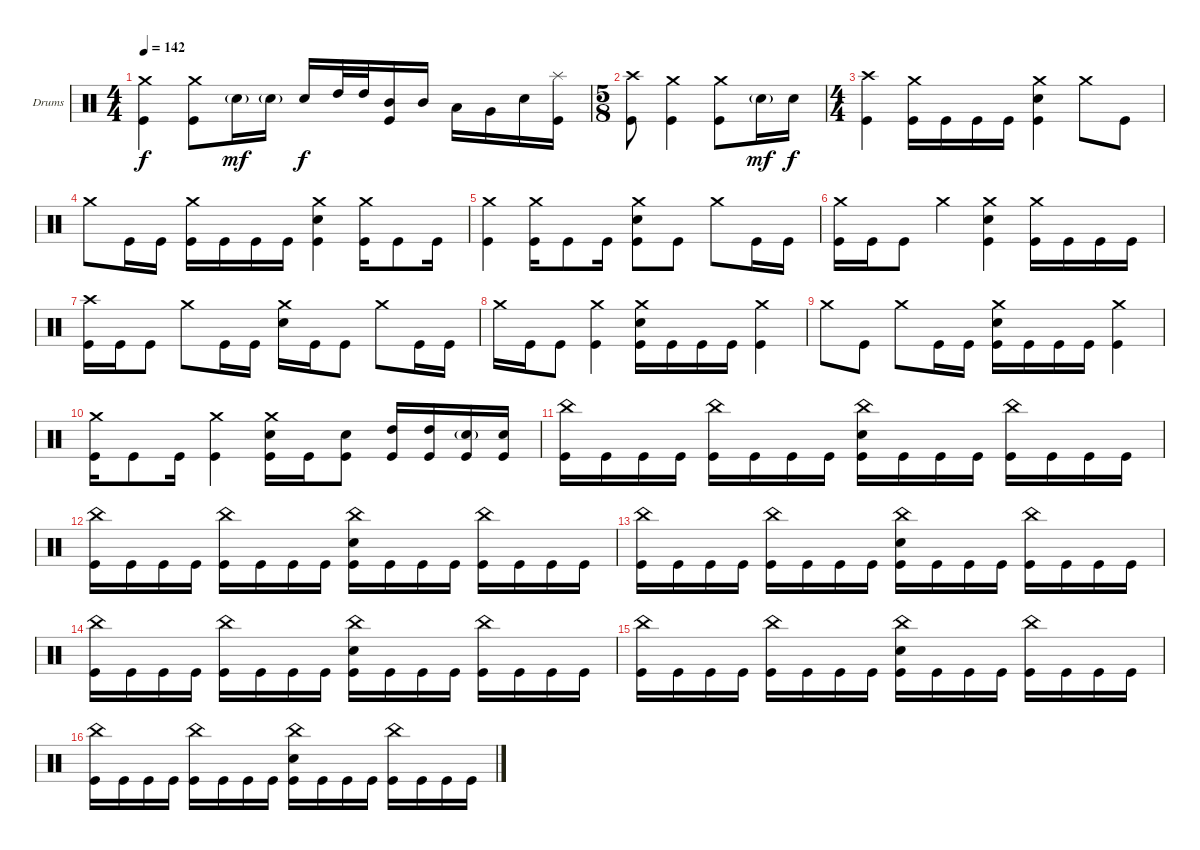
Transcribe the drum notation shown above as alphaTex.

\bracketExtendMode groupsimilarinstruments
\firstSystemTrackNameOrientation horizontal
\otherSystemsTrackNameOrientation horizontal
\track ("Drumkit" "Drums") {instrument percussion}
\staff {score}
\articulation defaults
\ts (4 4)
\tempo 142
\clef neutral
\ks c
("Crash medium (hit)" "Kick (hit)").4{dy f} ("Crash medium (hit)" "Kick (hit)").8 "Snare (hit) 2"{g}.16{dy mf} "Snare (hit) 2"{g}.16 "Snare (hit) 2".16{dy f} "High Tom (hit)".32 "High Tom (hit)".32 ("Mid Tom (hit)" "Kick (hit)").16 "Mid Tom (hit)".16 "Low Tom (hit)".16 "Very Low Tom (hit)".16 "Snare (hit) 2".16 ("Splash (hit)" "Kick (hit)").16 |
\ts (5 8)
\beaming (8 3 2)
("Crash high (hit)" "Kick (hit)").8 ("Crash medium (hit)" "Kick (hit)").4 ("Crash medium (hit)" "Kick (hit)").8 "Snare (hit) 2"{g}.16{dy mf} "Snare (hit) 2".16{dy f} |
\ts (4 4)
\beaming (8 2 2 2 2)
("Crash high (hit)" "Kick (hit)").4 ("Crash medium (hit)" "Kick (hit)").16 "Kick (hit)".16 "Kick (hit)".16 "Kick (hit)".16 ("Crash medium (hit)" "Snare (hit) 2" "Kick (hit)").4 "Crash medium (hit)".8 "Kick (hit)".8 |
"Crash medium (hit)".8 "Kick (hit)".16 "Kick (hit)".16 ("Crash medium (hit)" "Kick (hit)").16 "Kick (hit)".16 "Kick (hit)".16 "Kick (hit)".16 ("Crash medium (hit)" "Snare (hit) 2" "Kick (hit)").4 ("Crash medium (hit)" "Kick (hit)").16 "Kick (hit)".8 "Kick (hit)".16 |
("Crash medium (hit)" "Kick (hit)").4 ("Crash medium (hit)" "Kick (hit)").16 "Kick (hit)".8 "Kick (hit)".16 ("Crash medium (hit)" "Snare (hit) 2" "Kick (hit)").8 "Kick (hit)".8 "Crash medium (hit)".8 "Kick (hit)".16 "Kick (hit)".16 |
("Crash medium (hit)" "Kick (hit)").16 "Kick (hit)".16 "Kick (hit)".8 "Crash medium (hit)".4 ("Crash medium (hit)" "Snare (hit) 2" "Kick (hit)").4 ("Crash medium (hit)" "Kick (hit)").16 "Kick (hit)".16 "Kick (hit)".16 "Kick (hit)".16 |
("Crash high (hit)" "Kick (hit)").16 "Kick (hit)".16 "Kick (hit)".8 "Crash medium (hit)".8 "Kick (hit)".16 "Kick (hit)".16 ("Crash medium (hit)" "Snare (hit) 2").16 "Kick (hit)".16 "Kick (hit)".8 "Crash medium (hit)".8 "Kick (hit)".16 "Kick (hit)".16 |
"Crash medium (hit)".16 "Kick (hit)".16 "Kick (hit)".8 ("Crash medium (hit)" "Kick (hit)").4 ("Crash medium (hit)" "Snare (hit) 2" "Kick (hit)").16 "Kick (hit)".16 "Kick (hit)".16 "Kick (hit)".16 ("Crash medium (hit)" "Kick (hit)").4 |
"Crash medium (hit)".8 "Kick (hit)".8 "Crash medium (hit)".8 "Kick (hit)".16 "Kick (hit)".16 ("Crash medium (hit)" "Snare (hit) 2" "Kick (hit)").16 "Kick (hit)".16 "Kick (hit)".16 "Kick (hit)".16 ("Crash medium (hit)" "Kick (hit)").4 |
("Crash medium (hit)" "Kick (hit)").16 "Kick (hit)".8 "Kick (hit)".16 ("Crash medium (hit)" "Kick (hit)").4 ("Crash medium (hit)" "Snare (hit) 2" "Kick (hit)").16 "Kick (hit)".16 ("Snare (hit) 2" "Kick (hit)").8 ("High Tom (hit)" "Kick (hit)").16 ("High Tom (hit)" "Kick (hit)").16 ("Snare (hit) 2"{g} "Kick (hit)").16 ("Snare (hit) 2" "Kick (hit)").16 |
("China (hit)" "Kick (hit)").16 "Kick (hit)".16 "Kick (hit)".16 "Kick (hit)".16 ("China (hit)" "Kick (hit)").16 "Kick (hit)".16 "Kick (hit)".16 "Kick (hit)".16 ("China (hit)" "Snare (hit) 2" "Kick (hit)").16 "Kick (hit)".16 "Kick (hit)".16 "Kick (hit)".16 ("China (hit)" "Kick (hit)").16 "Kick (hit)".16 "Kick (hit)".16 "Kick (hit)".16 |
("China (hit)" "Kick (hit)").16 "Kick (hit)".16 "Kick (hit)".16 "Kick (hit)".16 ("China (hit)" "Kick (hit)").16 "Kick (hit)".16 "Kick (hit)".16 "Kick (hit)".16 ("China (hit)" "Snare (hit) 2" "Kick (hit)").16 "Kick (hit)".16 "Kick (hit)".16 "Kick (hit)".16 ("China (hit)" "Kick (hit)").16 "Kick (hit)".16 "Kick (hit)".16 "Kick (hit)".16 |
("China (hit)" "Kick (hit)").16 "Kick (hit)".16 "Kick (hit)".16 "Kick (hit)".16 ("China (hit)" "Kick (hit)").16 "Kick (hit)".16 "Kick (hit)".16 "Kick (hit)".16 ("China (hit)" "Snare (hit) 2" "Kick (hit)").16 "Kick (hit)".16 "Kick (hit)".16 "Kick (hit)".16 ("China (hit)" "Kick (hit)").16 "Kick (hit)".16 "Kick (hit)".16 "Kick (hit)".16 |
("China (hit)" "Kick (hit)").16 "Kick (hit)".16 "Kick (hit)".16 "Kick (hit)".16 ("China (hit)" "Kick (hit)").16 "Kick (hit)".16 "Kick (hit)".16 "Kick (hit)".16 ("China (hit)" "Snare (hit) 2" "Kick (hit)").16 "Kick (hit)".16 "Kick (hit)".16 "Kick (hit)".16 ("China (hit)" "Kick (hit)").16 "Kick (hit)".16 "Kick (hit)".16 "Kick (hit)".16 |
("China (hit)" "Kick (hit)").16 "Kick (hit)".16 "Kick (hit)".16 "Kick (hit)".16 ("China (hit)" "Kick (hit)").16 "Kick (hit)".16 "Kick (hit)".16 "Kick (hit)".16 ("China (hit)" "Snare (hit) 2" "Kick (hit)").16 "Kick (hit)".16 "Kick (hit)".16 "Kick (hit)".16 ("China (hit)" "Kick (hit)").16 "Kick (hit)".16 "Kick (hit)".16 "Kick (hit)".16 |
("China (hit)" "Kick (hit)").16 "Kick (hit)".16 "Kick (hit)".16 "Kick (hit)".16 ("China (hit)" "Kick (hit)").16 "Kick (hit)".16 "Kick (hit)".16 "Kick (hit)".16 ("China (hit)" "Snare (hit) 2" "Kick (hit)").16 "Kick (hit)".16 "Kick (hit)".16 "Kick (hit)".16 ("China (hit)" "Kick (hit)").16 "Kick (hit)".16 "Kick (hit)".16 "Kick (hit)".16
